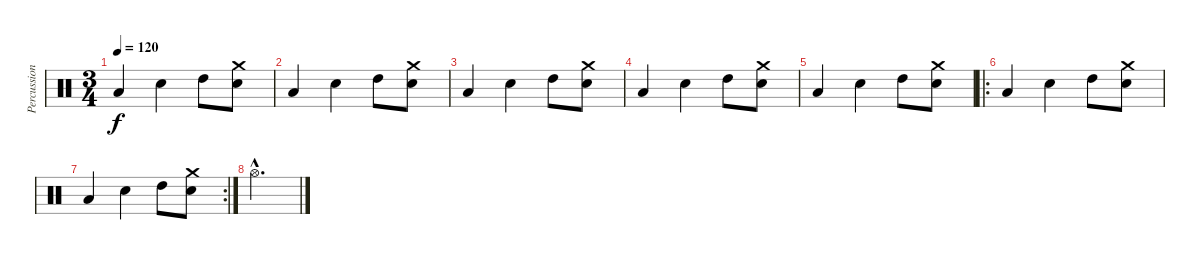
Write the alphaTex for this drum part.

\track ("Percussions" "Percussion") {instrument percussion}
\staff {score}
\articulation defaults
\ts (3 4)
\tempo 120
\clef neutral
\ks c "Low Floor Tom (hit)".4{dy f} "Electric Snare (hit)".4 "High Tom (hit)".8
("Electric Snare (hit)" "Crash medium (hit)").8 |
"Low Floor Tom (hit)".4 "Electric Snare (hit)".4 "High Tom (hit)".8 ("Electric Snare (hit)" "Crash medium (hit)").8 |
"Low Floor Tom (hit)".4 "Electric Snare (hit)".4 "High Tom (hit)".8 ("Electric Snare (hit)" "Crash medium (hit)").8 |
"Low Floor Tom (hit)".4 "Electric Snare (hit)".4 "High Tom (hit)".8 ("Electric Snare (hit)" "Crash medium (hit)").8 |
"Low Floor Tom (hit)".4 "Electric Snare (hit)".4 "High Tom (hit)".8 ("Electric Snare (hit)" "Crash medium (hit)").8 |
\ro "Low Floor Tom (hit)".4 "Electric Snare (hit)".4 "High Tom (hit)".8
("Electric Snare (hit)" "Crash medium (hit)").8 |
\rc 2 "Low Floor Tom (hit)".4 "Electric Snare (hit)".4 "High Tom (hit)".8
("Electric Snare (hit)" "Crash medium (hit)").8 |
"Hi-Hat (open)"{hac}.2{d}
